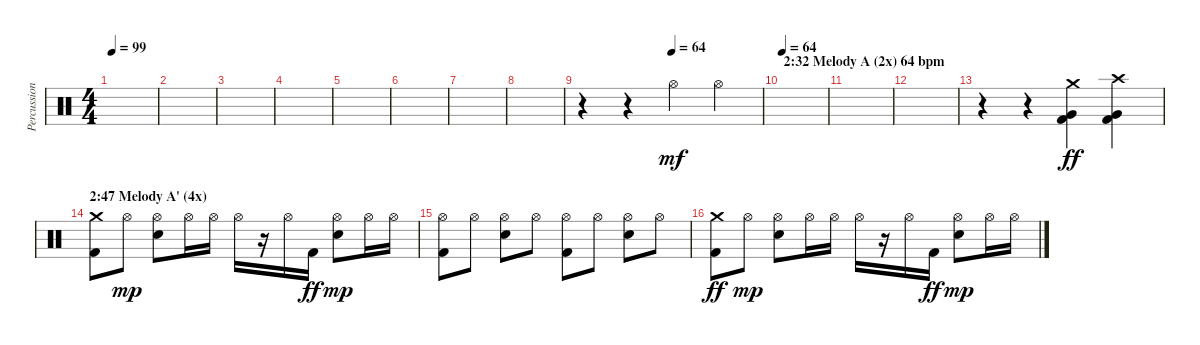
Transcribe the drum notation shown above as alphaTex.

\track ("Percussion" "Percussion") {instrument percussion}
\staff {score}
\articulation defaults
\ts (4 4)
\tempo 99
\clef neutral
\ks c
|
|
|
|
|
|
|
|
\tempo (64 0.5)
r.4 r.4 "Hi-Hat (open)".4{dy mf} "Hi-Hat (open)".4 |
\section ("" "2:32 Melody A (2x) 64 bpm")
\tempo 64
|
|
|
r.4 r.4 ("Kick (hit) 2" "Very Low Tom (hit)" "Crash medium (hit)").4{dy ff} ("Kick (hit) 2" "Very Low Tom (hit)" "Crash high (hit)").4 |
\section ("" "2:47 Melody A' (4x)")
("Kick (hit) 2" "Crash medium (hit)").8 "Hi-Hat (open)".8{dy mp} ("Electric Snare (hit)" "Hi-Hat (open)").8 "Hi-Hat (open)".16 "Hi-Hat (open)".16 "Hi-Hat (open)".16 r.16 "Hi-Hat (open)".16 "Kick (hit) 2".16{dy ff} ("Electric Snare (hit)" "Hi-Hat (open)").8{dy mp} "Hi-Hat (open)".16 "Hi-Hat (open)".16 |
("Kick (hit) 2" "Hi-Hat (open)").8 "Hi-Hat (open)".8 ("Electric Snare (hit)" "Hi-Hat (open)").8 "Hi-Hat (open)".8 ("Kick (hit) 2" "Hi-Hat (open)").8 "Hi-Hat (open)".8 ("Electric Snare (hit)" "Hi-Hat (open)").8 "Hi-Hat (open)".8 |
("Kick (hit) 2" "Crash medium (hit)").8{dy ff} "Hi-Hat (open)".8{dy mp} ("Electric Snare (hit)" "Hi-Hat (open)").8 "Hi-Hat (open)".16 "Hi-Hat (open)".16 "Hi-Hat (open)".16 r.16 "Hi-Hat (open)".16 "Kick (hit) 2".16{dy ff} ("Electric Snare (hit)" "Hi-Hat (open)").8{dy mp} "Hi-Hat (open)".16 "Hi-Hat (open)".16
